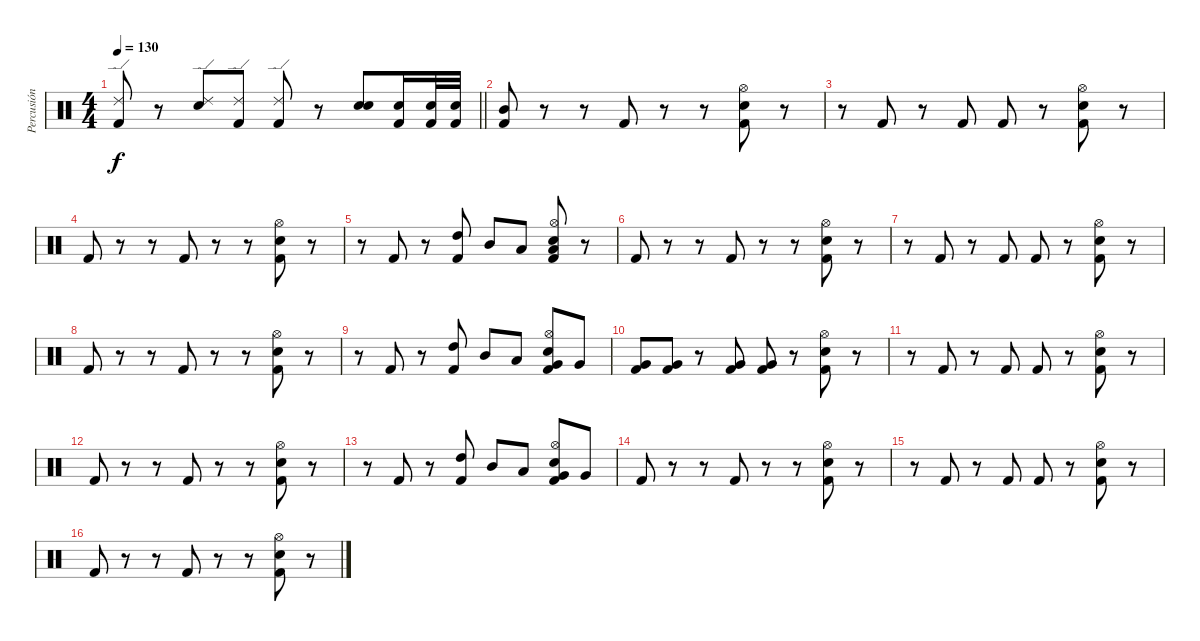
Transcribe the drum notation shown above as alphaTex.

\track ("Percusión" "Percusión") {instrument percussion}
\staff {score}
\articulation defaults
\ts (4 4)
\tempo 130
\clef neutral
\barLineRight lightlight
\ks c
("Kick (hit) 2" "Ride (edge) 2").8{dy f} r.8 ("Snare (hit) 2" "Ride (edge) 2").8 ("Kick (hit) 2" "Ride (edge) 2").8 ("Kick (hit) 2" "Ride (edge) 2").8 r.8 ("Snare (hit) 2" "Electric Snare (hit)").8 ("Kick (hit) 2" "Snare (hit) 2").16 ("Kick (hit) 2" "Snare (hit) 2").32 ("Kick (hit) 2" "Snare (hit) 2").32 |
("Kick (hit) 2" "Mid Tom (hit)").8 r.8 r.8 "Kick (hit) 2".8 r.8 r.8 ("Kick (hit) 2" "Snare (hit) 2" "Hi-Hat (open)").8 r.8 |
r.8 "Kick (hit) 2".8 r.8 "Kick (hit) 2".8 "Kick (hit) 2".8 r.8 ("Kick (hit) 2" "Snare (hit) 2" "Hi-Hat (open)").8 r.8 |
"Kick (hit) 2".8 r.8 r.8 "Kick (hit) 2".8 r.8 r.8 ("Kick (hit) 2" "Snare (hit) 2" "Hi-Hat (open)").8 r.8 |
r.8 "Kick (hit) 2".8 r.8 ("Kick (hit) 2" "High Tom (hit)").8 "Mid Tom (hit)".8 "Low Tom (hit)".8 ("Kick (hit) 2" "Snare (hit) 2" "Low Floor Tom (hit)" "Hi-Hat (open)").8 r.8 |
"Kick (hit) 2".8 r.8 r.8 "Kick (hit) 2".8 r.8 r.8 ("Kick (hit) 2" "Snare (hit) 2" "Hi-Hat (open)").8 r.8 |
r.8 "Kick (hit) 2".8 r.8 "Kick (hit) 2".8 "Kick (hit) 2".8 r.8 ("Kick (hit) 2" "Snare (hit) 2" "Hi-Hat (open)").8 r.8 |
"Kick (hit) 2".8 r.8 r.8 "Kick (hit) 2".8 r.8 r.8 ("Kick (hit) 2" "Snare (hit) 2" "Hi-Hat (open)").8 r.8 |
r.8 "Kick (hit) 2".8 r.8 ("Kick (hit) 2" "High Tom (hit)").8 "Mid Tom (hit)".8 "Low Tom (hit)".8 ("Kick (hit) 2" "Snare (hit) 2" "Very Low Tom (hit)" "Hi-Hat (open)").8 "Very Low Tom (hit)".8 |
("Kick (hit) 2" "Very Low Tom (hit)").8 ("Kick (hit) 2" "Very Low Tom (hit)").8 r.8 ("Kick (hit) 2" "Very Low Tom (hit)").8 ("Kick (hit) 2" "Very Low Tom (hit)").8 r.8 ("Kick (hit) 2" "Snare (hit) 2" "Hi-Hat (open)").8 r.8 |
r.8 "Kick (hit) 2".8 r.8 "Kick (hit) 2".8 "Kick (hit) 2".8 r.8 ("Kick (hit) 2" "Snare (hit) 2" "Hi-Hat (open)").8 r.8 |
"Kick (hit) 2".8 r.8 r.8 "Kick (hit) 2".8 r.8 r.8 ("Kick (hit) 2" "Snare (hit) 2" "Hi-Hat (open)").8 r.8 |
r.8 "Kick (hit) 2".8 r.8 ("Kick (hit) 2" "High Tom (hit)").8 "Mid Tom (hit)".8 "Low Tom (hit)".8 ("Kick (hit) 2" "Snare (hit) 2" "Very Low Tom (hit)" "Hi-Hat (open)").8 "Very Low Tom (hit)".8 |
"Kick (hit) 2".8 r.8 r.8 "Kick (hit) 2".8 r.8 r.8 ("Kick (hit) 2" "Snare (hit) 2" "Hi-Hat (open)").8 r.8 |
r.8 "Kick (hit) 2".8 r.8 "Kick (hit) 2".8 "Kick (hit) 2".8 r.8 ("Kick (hit) 2" "Snare (hit) 2" "Hi-Hat (open)").8 r.8 |
"Kick (hit) 2".8 r.8 r.8 "Kick (hit) 2".8 r.8 r.8 ("Kick (hit) 2" "Snare (hit) 2" "Hi-Hat (open)").8 r.8
